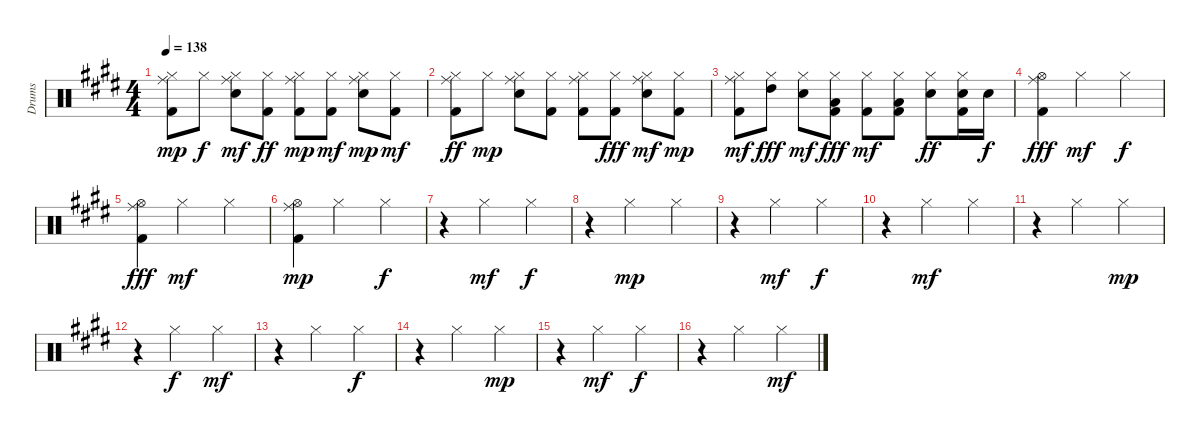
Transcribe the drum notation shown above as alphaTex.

\track ("Drums" "Drums") {instrument percussion}
\staff {score}
\articulation defaults
\ts (4 4)
\tempo 138
\clef neutral
\ks e
("Kick (hit) 2" "Hi-Hat (closed)" "Ride (middle)").8{dy mp} "Hi-Hat (closed)".8{dy f} ("Snare (hit) 2" "Hi-Hat (closed)" "Ride (middle)").8{dy mf} ("Kick (hit) 2" "Hi-Hat (closed)").8{dy ff} ("Kick (hit) 2" "Hi-Hat (closed)" "Ride (middle)").8{dy mp} ("Kick (hit) 2" "Hi-Hat (closed)").8{dy mf} ("Snare (hit) 2" "Hi-Hat (closed)" "Ride (middle)").8{dy mp} ("Kick (hit) 2" "Hi-Hat (closed)").8{dy mf} |
("Kick (hit) 2" "Hi-Hat (closed)" "Ride (middle)").8{dy ff} "Hi-Hat (closed)".8{dy mp} ("Snare (hit) 2" "Hi-Hat (closed)" "Ride (middle)").8 ("Kick (hit) 2" "Hi-Hat (closed)").8 ("Kick (hit) 2" "Hi-Hat (closed)" "Ride (middle)").8 ("Kick (hit) 2" "Hi-Hat (closed)").8{dy fff} ("Snare (hit) 2" "Hi-Hat (closed)" "Ride (middle)").8{dy mf} ("Kick (hit) 2" "Hi-Hat (closed)").8{dy mp} |
("Kick (hit) 2" "Hi-Hat (closed)" "Ride (middle)").8{dy mf} ("Hi-Hat (closed)" "High Tom (hit)").8{dy fff} ("Snare (hit) 2" "Hi-Hat (closed)").8{dy mf} ("Kick (hit) 2" "Hi-Hat (closed)" "Low Tom (hit)").8{dy fff} ("Kick (hit) 2" "Hi-Hat (closed)").8{dy mf} ("Kick (hit) 2" "Low Floor Tom (hit)" "Hi-Hat (closed)").8 ("Snare (hit) 2" "Hi-Hat (closed)").8{dy ff} ("Kick (hit) 2" "Snare (hit) 2" "Hi-Hat (closed)").16 "Snare (hit) 2".16{dy f} |
("Kick (hit) 2" "Hi-Hat (open)" "Ride (middle)").4{dy fff} "Hi-Hat (closed)".2{dy mf} "Hi-Hat (closed)".4{dy f} |
("Kick (hit) 2" "Hi-Hat (open)" "Ride (middle)").4{dy fff} "Hi-Hat (closed)".2{dy mf} "Hi-Hat (closed)".4 |
("Kick (hit) 2" "Hi-Hat (open)" "Ride (middle)").4{dy mp} "Hi-Hat (closed)".2 "Hi-Hat (closed)".4{dy f} |
r.4 "Hi-Hat (closed)".2{dy mf} "Hi-Hat (closed)".4{dy f} |
r.4 "Hi-Hat (closed)".2{dy mp} "Hi-Hat (closed)".4 |
r.4 "Hi-Hat (closed)".2{dy mf} "Hi-Hat (closed)".4{dy f} |
r.4 "Hi-Hat (closed)".2{dy mf} "Hi-Hat (closed)".4 |
r.4 "Hi-Hat (closed)".2 "Hi-Hat (closed)".4{dy mp} |
r.4 "Hi-Hat (closed)".2{dy f} "Hi-Hat (closed)".4{dy mf} |
r.4 "Hi-Hat (closed)".2 "Hi-Hat (closed)".4{dy f} |
r.4 "Hi-Hat (closed)".2 "Hi-Hat (closed)".4{dy mp} |
r.4 "Hi-Hat (closed)".2{dy mf} "Hi-Hat (closed)".4{dy f} |
r.4 "Hi-Hat (closed)".2 "Hi-Hat (closed)".4{dy mf}
